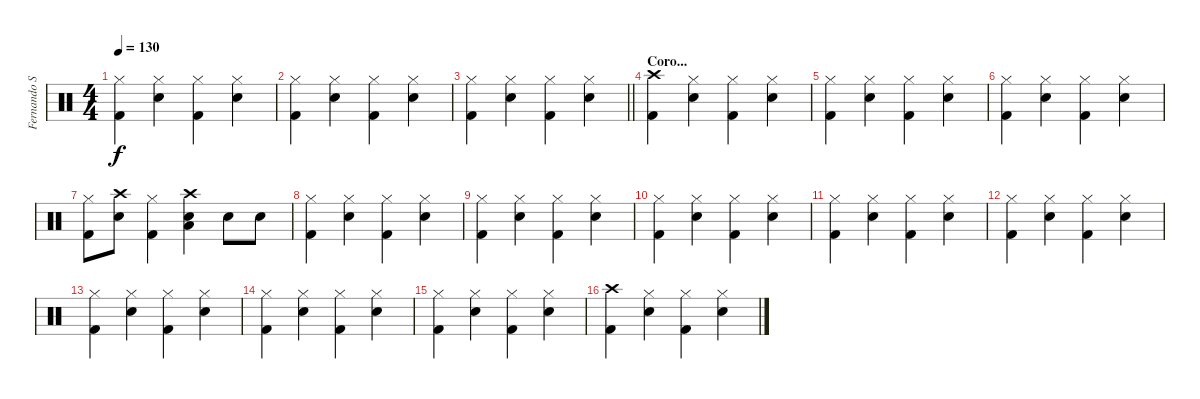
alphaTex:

\track ("Fernando Scarcella" "Fernando S") {instrument percussion}
\staff {score}
\articulation defaults
\ts (4 4)
\tempo 130
\clef neutral
\ks c
("Hi-Hat (closed)" "Kick (hit) 2").4{dy f} ("Hi-Hat (closed)" "Snare (hit) 2").4 ("Hi-Hat (closed)" "Kick (hit) 2").4 ("Hi-Hat (closed)" "Snare (hit) 2").4 |
("Hi-Hat (closed)" "Kick (hit) 2").4 ("Hi-Hat (closed)" "Snare (hit) 2").4 ("Hi-Hat (closed)" "Kick (hit) 2").4 ("Hi-Hat (closed)" "Snare (hit) 2").4 |
\barLineRight lightlight
("Hi-Hat (closed)" "Kick (hit) 2").4 ("Hi-Hat (closed)" "Snare (hit) 2").4 ("Hi-Hat (closed)" "Kick (hit) 2").4 ("Hi-Hat (closed)" "Snare (hit) 2").4 |
\section ("" "Coro... ")
("Crash high (hit)" "Kick (hit) 2").4 ("Hi-Hat (closed)" "Snare (hit) 2").4 ("Hi-Hat (closed)" "Kick (hit) 2").4 ("Hi-Hat (closed)" "Snare (hit) 2").4 |
("Hi-Hat (closed)" "Kick (hit) 2").4 ("Hi-Hat (closed)" "Snare (hit) 2").4 ("Hi-Hat (closed)" "Kick (hit) 2").4 ("Hi-Hat (closed)" "Snare (hit) 2").4 |
("Hi-Hat (closed)" "Kick (hit) 2").4 ("Hi-Hat (closed)" "Snare (hit) 2").4 ("Hi-Hat (closed)" "Kick (hit) 2").4 ("Hi-Hat (closed)" "Snare (hit) 2").4 |
("Hi-Hat (closed)" "Kick (hit) 2").8 ("Crash high (hit)" "Snare (hit) 2").8 ("Hi-Hat (closed)" "Kick (hit) 2").4 ("Crash high (hit)" "Snare (hit) 2" "Low Tom (hit)").4 "Snare (hit) 2".8 "Snare (hit) 2".8 |
("Hi-Hat (closed)" "Kick (hit) 2").4 ("Hi-Hat (closed)" "Snare (hit) 2").4 ("Hi-Hat (closed)" "Kick (hit) 2").4 ("Hi-Hat (closed)" "Snare (hit) 2").4 |
("Hi-Hat (closed)" "Kick (hit) 2").4 ("Hi-Hat (closed)" "Snare (hit) 2").4 ("Hi-Hat (closed)" "Kick (hit) 2").4 ("Hi-Hat (closed)" "Snare (hit) 2").4 |
("Hi-Hat (closed)" "Kick (hit) 2").4 ("Hi-Hat (closed)" "Snare (hit) 2").4 ("Hi-Hat (closed)" "Kick (hit) 2").4 ("Hi-Hat (closed)" "Snare (hit) 2").4 |
("Hi-Hat (closed)" "Kick (hit) 2").4 ("Hi-Hat (closed)" "Snare (hit) 2").4 ("Hi-Hat (closed)" "Kick (hit) 2").4 ("Hi-Hat (closed)" "Snare (hit) 2").4 |
("Hi-Hat (closed)" "Kick (hit) 2").4 ("Hi-Hat (closed)" "Snare (hit) 2").4 ("Hi-Hat (closed)" "Kick (hit) 2").4 ("Hi-Hat (closed)" "Snare (hit) 2").4 |
("Hi-Hat (closed)" "Kick (hit) 2").4 ("Hi-Hat (closed)" "Snare (hit) 2").4 ("Hi-Hat (closed)" "Kick (hit) 2").4 ("Hi-Hat (closed)" "Snare (hit) 2").4 |
("Hi-Hat (closed)" "Kick (hit) 2").4 ("Hi-Hat (closed)" "Snare (hit) 2").4 ("Hi-Hat (closed)" "Kick (hit) 2").4 ("Hi-Hat (closed)" "Snare (hit) 2").4 |
("Hi-Hat (closed)" "Kick (hit) 2").4 ("Hi-Hat (closed)" "Snare (hit) 2").4 ("Hi-Hat (closed)" "Kick (hit) 2").4 ("Hi-Hat (closed)" "Snare (hit) 2").4 |
("Crash high (hit)" "Kick (hit) 2").4 ("Hi-Hat (closed)" "Snare (hit) 2").4 ("Hi-Hat (closed)" "Kick (hit) 2").4 ("Hi-Hat (closed)" "Snare (hit) 2").4
